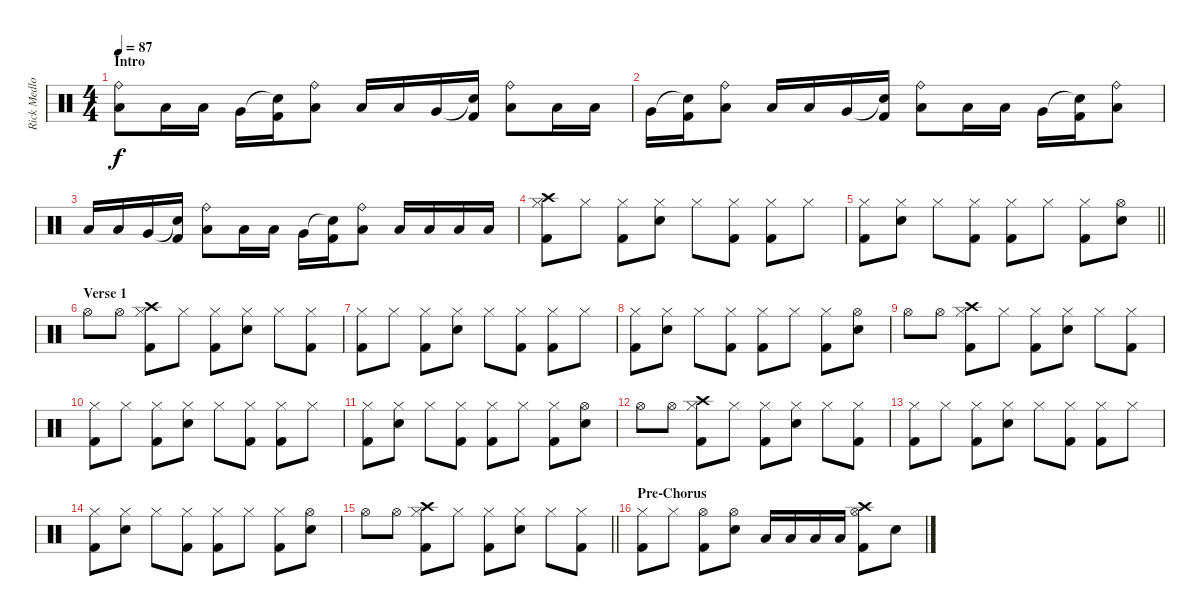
\track ("Rick Medlocke" "Rick Medlo") {instrument percussion}
\staff {score}
\articulation defaults
\ts (4 4)
\section ("" "Intro")
\tempo 87
\clef neutral
\ks c
("Ride (bell)" "Low Tom (hit)").8{dy f} "Low Tom (hit)".16 "Low Tom (hit)".16 "Very Low Tom (hit)".16 ("Snare (hit)"{t} "Kick (hit) 2").16 ("Ride (bell)" "Low Tom (hit)").8 "Low Tom (hit)".16 "Low Tom (hit)".16 "Very Low Tom (hit)".16 ("Snare (hit)"{t} "Kick (hit) 2").16 ("Ride (bell)" "Low Tom (hit)").8 "Low Tom (hit)".16 "Low Tom (hit)".16 |
"Very Low Tom (hit)".16 ("Snare (hit)"{t} "Kick (hit) 2").16 ("Ride (bell)" "Low Tom (hit)").8 "Low Tom (hit)".16 "Low Tom (hit)".16 "Very Low Tom (hit)".16 ("Snare (hit)"{t} "Kick (hit) 2").16 ("Ride (bell)" "Low Tom (hit)").8 "Low Tom (hit)".16 "Low Tom (hit)".16 "Very Low Tom (hit)".16 ("Snare (hit)"{t} "Kick (hit) 2").16 ("Ride (bell)" "Low Tom (hit)").8 |
"Low Tom (hit)".16 "Low Tom (hit)".16 "Very Low Tom (hit)".16 ("Snare (hit)"{t} "Kick (hit) 2").16 ("Ride (bell)" "Low Tom (hit)").8 "Low Tom (hit)".16 "Low Tom (hit)".16 "Very Low Tom (hit)".16 ("Snare (hit)"{t} "Kick (hit) 2").16 ("Ride (bell)" "Low Tom (hit)").8 "Low Tom (hit)".16 "Low Tom (hit)".16 "Low Tom (hit)".16 "Low Tom (hit)".16 |
("Crash high (hit)" "Hi-Hat (closed)" "Kick (hit) 2").8 "Hi-Hat (closed)".8 ("Hi-Hat (closed)" "Kick (hit) 2").8 ("Hi-Hat (closed)" "Electric Snare (hit)").8 "Hi-Hat (closed)".8 ("Hi-Hat (closed)" "Kick (hit) 2").8 ("Hi-Hat (closed)" "Kick (hit) 2").8 "Hi-Hat (closed)".8 |
\barLineRight lightlight
("Hi-Hat (closed)" "Kick (hit) 2").8 ("Hi-Hat (closed)" "Electric Snare (hit)").8 "Hi-Hat (closed)".8 ("Hi-Hat (closed)" "Kick (hit) 2").8 ("Hi-Hat (closed)" "Kick (hit) 2").8 "Hi-Hat (closed)".8 ("Hi-Hat (closed)" "Kick (hit) 2").8 ("Hi-Hat (open)" "Electric Snare (hit)").8 |
\section ("" "Verse 1")
"Hi-Hat (open)".8 "Hi-Hat (open)".8 ("Crash high (hit)" "Hi-Hat (closed)" "Kick (hit) 2").8 "Hi-Hat (closed)".8 ("Hi-Hat (closed)" "Kick (hit) 2").8 ("Hi-Hat (closed)" "Electric Snare (hit)").8 "Hi-Hat (closed)".8 ("Hi-Hat (closed)" "Kick (hit) 2").8 |
("Hi-Hat (closed)" "Kick (hit) 2").8 "Hi-Hat (closed)".8 ("Hi-Hat (closed)" "Kick (hit) 2").8 ("Hi-Hat (closed)" "Electric Snare (hit)").8 "Hi-Hat (closed)".8 ("Hi-Hat (closed)" "Kick (hit) 2").8 ("Hi-Hat (closed)" "Kick (hit) 2").8 "Hi-Hat (closed)".8 |
("Hi-Hat (closed)" "Kick (hit) 2").8 ("Hi-Hat (closed)" "Electric Snare (hit)").8 "Hi-Hat (closed)".8 ("Hi-Hat (closed)" "Kick (hit) 2").8 ("Hi-Hat (closed)" "Kick (hit) 2").8 "Hi-Hat (closed)".8 ("Hi-Hat (closed)" "Kick (hit) 2").8 ("Hi-Hat (open)" "Electric Snare (hit)").8 |
"Hi-Hat (open)".8 "Hi-Hat (open)".8 ("Crash high (hit)" "Hi-Hat (closed)" "Kick (hit) 2").8 "Hi-Hat (closed)".8 ("Hi-Hat (closed)" "Kick (hit) 2").8 ("Hi-Hat (closed)" "Electric Snare (hit)").8 "Hi-Hat (closed)".8 ("Hi-Hat (closed)" "Kick (hit) 2").8 |
("Hi-Hat (closed)" "Kick (hit) 2").8 "Hi-Hat (closed)".8 ("Hi-Hat (closed)" "Kick (hit) 2").8 ("Hi-Hat (closed)" "Electric Snare (hit)").8 "Hi-Hat (closed)".8 ("Hi-Hat (closed)" "Kick (hit) 2").8 ("Hi-Hat (closed)" "Kick (hit) 2").8 "Hi-Hat (closed)".8 |
("Hi-Hat (closed)" "Kick (hit) 2").8 ("Hi-Hat (closed)" "Electric Snare (hit)").8 "Hi-Hat (closed)".8 ("Hi-Hat (closed)" "Kick (hit) 2").8 ("Hi-Hat (closed)" "Kick (hit) 2").8 "Hi-Hat (closed)".8 ("Hi-Hat (closed)" "Kick (hit) 2").8 ("Hi-Hat (open)" "Electric Snare (hit)").8 |
"Hi-Hat (open)".8 "Hi-Hat (open)".8 ("Crash high (hit)" "Hi-Hat (closed)" "Kick (hit) 2").8 "Hi-Hat (closed)".8 ("Hi-Hat (closed)" "Kick (hit) 2").8 ("Hi-Hat (closed)" "Electric Snare (hit)").8 "Hi-Hat (closed)".8 ("Hi-Hat (closed)" "Kick (hit) 2").8 |
("Hi-Hat (closed)" "Kick (hit) 2").8 "Hi-Hat (closed)".8 ("Hi-Hat (closed)" "Kick (hit) 2").8 ("Hi-Hat (closed)" "Electric Snare (hit)").8 "Hi-Hat (closed)".8 ("Hi-Hat (closed)" "Kick (hit) 2").8 ("Hi-Hat (closed)" "Kick (hit) 2").8 "Hi-Hat (closed)".8 |
("Hi-Hat (closed)" "Kick (hit) 2").8 ("Hi-Hat (closed)" "Electric Snare (hit)").8 "Hi-Hat (closed)".8 ("Hi-Hat (closed)" "Kick (hit) 2").8 ("Hi-Hat (closed)" "Kick (hit) 2").8 "Hi-Hat (closed)".8 ("Hi-Hat (closed)" "Kick (hit) 2").8 ("Hi-Hat (open)" "Electric Snare (hit)").8 |
\barLineRight lightlight "Hi-Hat (open)".8 "Hi-Hat (open)".8
("Crash high (hit)" "Hi-Hat (closed)" "Kick (hit) 2").8 "Hi-Hat (closed)".8 ("Hi-Hat (closed)" "Kick (hit) 2").8 ("Hi-Hat (closed)" "Electric Snare (hit)").8 "Hi-Hat (closed)".8 ("Hi-Hat (closed)" "Kick (hit) 2").8 |
\section ("" "Pre-Chorus")
("Hi-Hat (closed)" "Kick (hit) 2").8 "Hi-Hat (closed)".8 ("Hi-Hat (open)" "Kick (hit) 2").8 ("Hi-Hat (open)" "Electric Snare (hit)").8 "Low Tom (hit)".16 "Low Tom (hit)".16 "Low Tom (hit)".16 "Low Tom (hit)".16 ("Crash high (hit)" "Hi-Hat (open)" "Kick (hit) 2").8 "Electric Snare (hit)".8
